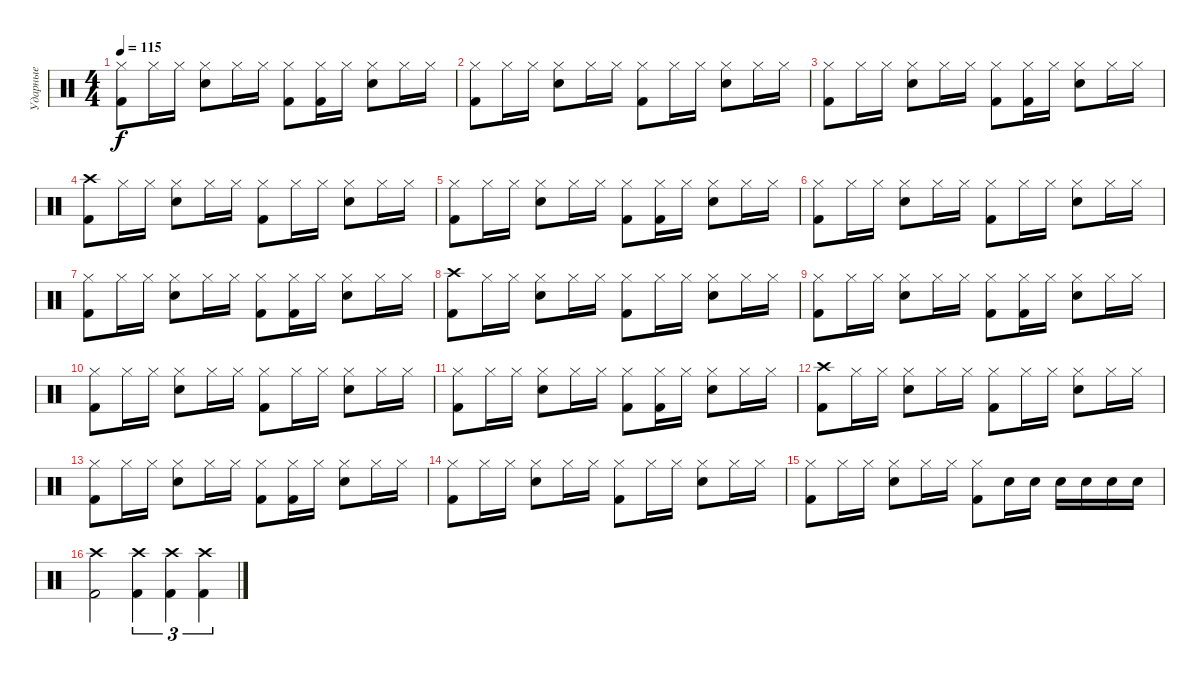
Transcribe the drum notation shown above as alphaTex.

\track ("Ударные" "Ударные") {instrument percussion}
\staff {score}
\articulation defaults
\ts (4 4)
\tempo 115
\clef neutral
\ks c
("Kick (hit) 2" "Hi-Hat (closed)").8{dy f} "Hi-Hat (closed)".16 "Hi-Hat (closed)".16 ("Hi-Hat (closed)" "Electric Snare (hit)").8 "Hi-Hat (closed)".16 "Hi-Hat (closed)".16 ("Kick (hit) 2" "Hi-Hat (closed)").8 ("Kick (hit) 2" "Hi-Hat (closed)").16 "Hi-Hat (closed)".16 ("Hi-Hat (closed)" "Electric Snare (hit)").8 "Hi-Hat (closed)".16 "Hi-Hat (closed)".16 |
("Kick (hit) 2" "Hi-Hat (closed)").8 "Hi-Hat (closed)".16 "Hi-Hat (closed)".16 ("Hi-Hat (closed)" "Electric Snare (hit)").8 "Hi-Hat (closed)".16 "Hi-Hat (closed)".16 ("Kick (hit) 2" "Hi-Hat (closed)").8 "Hi-Hat (closed)".16 "Hi-Hat (closed)".16 ("Hi-Hat (closed)" "Electric Snare (hit)").8 "Hi-Hat (closed)".16 "Hi-Hat (closed)".16 |
("Kick (hit) 2" "Hi-Hat (closed)").8 "Hi-Hat (closed)".16 "Hi-Hat (closed)".16 ("Hi-Hat (closed)" "Electric Snare (hit)").8 "Hi-Hat (closed)".16 "Hi-Hat (closed)".16 ("Kick (hit) 2" "Hi-Hat (closed)").8 ("Kick (hit) 2" "Hi-Hat (closed)").16 "Hi-Hat (closed)".16 ("Hi-Hat (closed)" "Electric Snare (hit)").8 "Hi-Hat (closed)".16 "Hi-Hat (closed)".16 |
("Kick (hit) 2" "Crash high (hit)").8 "Hi-Hat (closed)".16 "Hi-Hat (closed)".16 ("Hi-Hat (closed)" "Electric Snare (hit)").8 "Hi-Hat (closed)".16 "Hi-Hat (closed)".16 ("Kick (hit) 2" "Hi-Hat (closed)").8 "Hi-Hat (closed)".16 "Hi-Hat (closed)".16 ("Hi-Hat (closed)" "Electric Snare (hit)").8 "Hi-Hat (closed)".16 "Hi-Hat (closed)".16 |
("Kick (hit) 2" "Hi-Hat (closed)").8 "Hi-Hat (closed)".16 "Hi-Hat (closed)".16 ("Hi-Hat (closed)" "Electric Snare (hit)").8 "Hi-Hat (closed)".16 "Hi-Hat (closed)".16 ("Kick (hit) 2" "Hi-Hat (closed)").8 ("Kick (hit) 2" "Hi-Hat (closed)").16 "Hi-Hat (closed)".16 ("Hi-Hat (closed)" "Electric Snare (hit)").8 "Hi-Hat (closed)".16 "Hi-Hat (closed)".16 |
("Kick (hit) 2" "Hi-Hat (closed)").8 "Hi-Hat (closed)".16 "Hi-Hat (closed)".16 ("Hi-Hat (closed)" "Electric Snare (hit)").8 "Hi-Hat (closed)".16 "Hi-Hat (closed)".16 ("Kick (hit) 2" "Hi-Hat (closed)").8 "Hi-Hat (closed)".16 "Hi-Hat (closed)".16 ("Hi-Hat (closed)" "Electric Snare (hit)").8 "Hi-Hat (closed)".16 "Hi-Hat (closed)".16 |
("Kick (hit) 2" "Hi-Hat (closed)").8 "Hi-Hat (closed)".16 "Hi-Hat (closed)".16 ("Hi-Hat (closed)" "Electric Snare (hit)").8 "Hi-Hat (closed)".16 "Hi-Hat (closed)".16 ("Kick (hit) 2" "Hi-Hat (closed)").8 ("Kick (hit) 2" "Hi-Hat (closed)").16 "Hi-Hat (closed)".16 ("Hi-Hat (closed)" "Electric Snare (hit)").8 "Hi-Hat (closed)".16 "Hi-Hat (closed)".16 |
("Kick (hit) 2" "Crash high (hit)").8 "Hi-Hat (closed)".16 "Hi-Hat (closed)".16 ("Hi-Hat (closed)" "Electric Snare (hit)").8 "Hi-Hat (closed)".16 "Hi-Hat (closed)".16 ("Kick (hit) 2" "Hi-Hat (closed)").8 "Hi-Hat (closed)".16 "Hi-Hat (closed)".16 ("Hi-Hat (closed)" "Electric Snare (hit)").8 "Hi-Hat (closed)".16 "Hi-Hat (closed)".16 |
("Kick (hit) 2" "Hi-Hat (closed)").8 "Hi-Hat (closed)".16 "Hi-Hat (closed)".16 ("Hi-Hat (closed)" "Electric Snare (hit)").8 "Hi-Hat (closed)".16 "Hi-Hat (closed)".16 ("Kick (hit) 2" "Hi-Hat (closed)").8 ("Kick (hit) 2" "Hi-Hat (closed)").16 "Hi-Hat (closed)".16 ("Hi-Hat (closed)" "Electric Snare (hit)").8 "Hi-Hat (closed)".16 "Hi-Hat (closed)".16 |
("Kick (hit) 2" "Hi-Hat (closed)").8 "Hi-Hat (closed)".16 "Hi-Hat (closed)".16 ("Hi-Hat (closed)" "Electric Snare (hit)").8 "Hi-Hat (closed)".16 "Hi-Hat (closed)".16 ("Kick (hit) 2" "Hi-Hat (closed)").8 "Hi-Hat (closed)".16 "Hi-Hat (closed)".16 ("Hi-Hat (closed)" "Electric Snare (hit)").8 "Hi-Hat (closed)".16 "Hi-Hat (closed)".16 |
("Kick (hit) 2" "Hi-Hat (closed)").8 "Hi-Hat (closed)".16 "Hi-Hat (closed)".16 ("Hi-Hat (closed)" "Electric Snare (hit)").8 "Hi-Hat (closed)".16 "Hi-Hat (closed)".16 ("Kick (hit) 2" "Hi-Hat (closed)").8 ("Kick (hit) 2" "Hi-Hat (closed)").16 "Hi-Hat (closed)".16 ("Hi-Hat (closed)" "Electric Snare (hit)").8 "Hi-Hat (closed)".16 "Hi-Hat (closed)".16 |
("Kick (hit) 2" "Crash high (hit)").8 "Hi-Hat (closed)".16 "Hi-Hat (closed)".16 ("Hi-Hat (closed)" "Electric Snare (hit)").8 "Hi-Hat (closed)".16 "Hi-Hat (closed)".16 ("Kick (hit) 2" "Hi-Hat (closed)").8 "Hi-Hat (closed)".16 "Hi-Hat (closed)".16 ("Hi-Hat (closed)" "Electric Snare (hit)").8 "Hi-Hat (closed)".16 "Hi-Hat (closed)".16 |
("Kick (hit) 2" "Hi-Hat (closed)").8 "Hi-Hat (closed)".16 "Hi-Hat (closed)".16 ("Hi-Hat (closed)" "Electric Snare (hit)").8 "Hi-Hat (closed)".16 "Hi-Hat (closed)".16 ("Kick (hit) 2" "Hi-Hat (closed)").8 ("Kick (hit) 2" "Hi-Hat (closed)").16 "Hi-Hat (closed)".16 ("Hi-Hat (closed)" "Electric Snare (hit)").8 "Hi-Hat (closed)".16 "Hi-Hat (closed)".16 |
("Kick (hit) 2" "Hi-Hat (closed)").8 "Hi-Hat (closed)".16 "Hi-Hat (closed)".16 ("Hi-Hat (closed)" "Electric Snare (hit)").8 "Hi-Hat (closed)".16 "Hi-Hat (closed)".16 ("Kick (hit) 2" "Hi-Hat (closed)").8 "Hi-Hat (closed)".16 "Hi-Hat (closed)".16 ("Hi-Hat (closed)" "Electric Snare (hit)").8 "Hi-Hat (closed)".16 "Hi-Hat (closed)".16 |
("Kick (hit) 2" "Hi-Hat (closed)").8 "Hi-Hat (closed)".16 "Hi-Hat (closed)".16 ("Hi-Hat (closed)" "Electric Snare (hit)").8 "Hi-Hat (closed)".16 "Hi-Hat (closed)".16 ("Kick (hit) 2" "Hi-Hat (closed)").8 "Electric Snare (hit)".16 "Electric Snare (hit)".16 "Electric Snare (hit)".16 "Electric Snare (hit)".16 "Electric Snare (hit)".16 "Electric Snare (hit)".16 |
("Kick (hit) 2" "Crash high (hit)").2 ("Kick (hit) 2" "Crash high (hit)").4{tu (3 2)} ("Kick (hit) 2" "Crash high (hit)").4{tu (3 2)} ("Kick (hit) 2" "Crash high (hit)").4{tu (3 2)}
